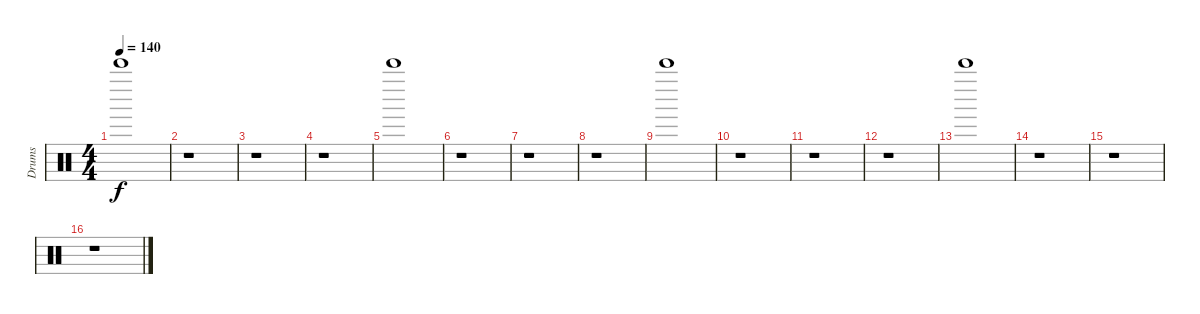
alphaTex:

\track ("Drums" "Drums") {instrument percussion}
\staff {score}
\articulation defaults
\ts (4 4)
\tempo 140
\clef neutral
\ks c "Bell Tree (hit)".1{dy f}
|
r.1 |
r.1 |
r.1 |
"Bell Tree (hit)".1 |
r.1 |
r.1 |
r.1 |
"Bell Tree (hit)".1 |
r.1 |
r.1 |
r.1 |
"Bell Tree (hit)".1 |
r.1 |
r.1 |
r.1
